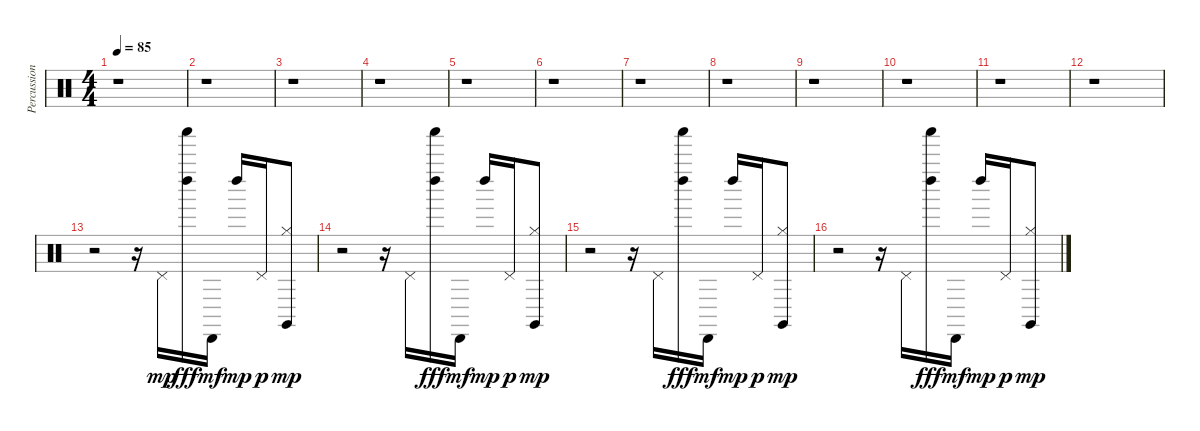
\track ("Percussion" "Percussion") {instrument percussion}
\staff {score}
\articulation defaults
\ts (4 4)
\tempo 85
\clef neutral
\ks c
r.1{dy mp} |
r.1 |
r.1 |
r.1 |
r.1 |
r.1 |
r.1 |
r.1 |
r.1 |
r.1 |
r.1 |
r.1 |
r.2 r.16 "Pedal Hi-Hat (hit)".16 ("Shaker (hit)" "Left Maraca (hit)").16{dy fff} "Cabasa (hit)".16{dy mf} "Left Maraca (hit)".16{dy mp} "Pedal Hi-Hat (hit)".16{dy p} ("Claves (hit)" "Hi-Hat (closed)").8{dy mp} |
r.2 r.16 "Pedal Hi-Hat (hit)".16 ("Shaker (hit)" "Left Maraca (hit)").16{dy fff} "Cabasa (hit)".16{dy mf} "Left Maraca (hit)".16{dy mp} "Pedal Hi-Hat (hit)".16{dy p} ("Claves (hit)" "Hi-Hat (closed)").8{dy mp} |
r.2 r.16 "Pedal Hi-Hat (hit)".16 ("Shaker (hit)" "Left Maraca (hit)").16{dy fff} "Cabasa (hit)".16{dy mf} "Left Maraca (hit)".16{dy mp} "Pedal Hi-Hat (hit)".16{dy p} ("Hi-Hat (closed)" "Claves (hit)").8{dy mp} |
r.2 r.16 "Pedal Hi-Hat (hit)".16 ("Shaker (hit)" "Left Maraca (hit)").16{dy fff} "Cabasa (hit)".16{dy mf} "Left Maraca (hit)".16{dy mp} "Pedal Hi-Hat (hit)".16{dy p} ("Claves (hit)" "Hi-Hat (closed)").8{dy mp}
